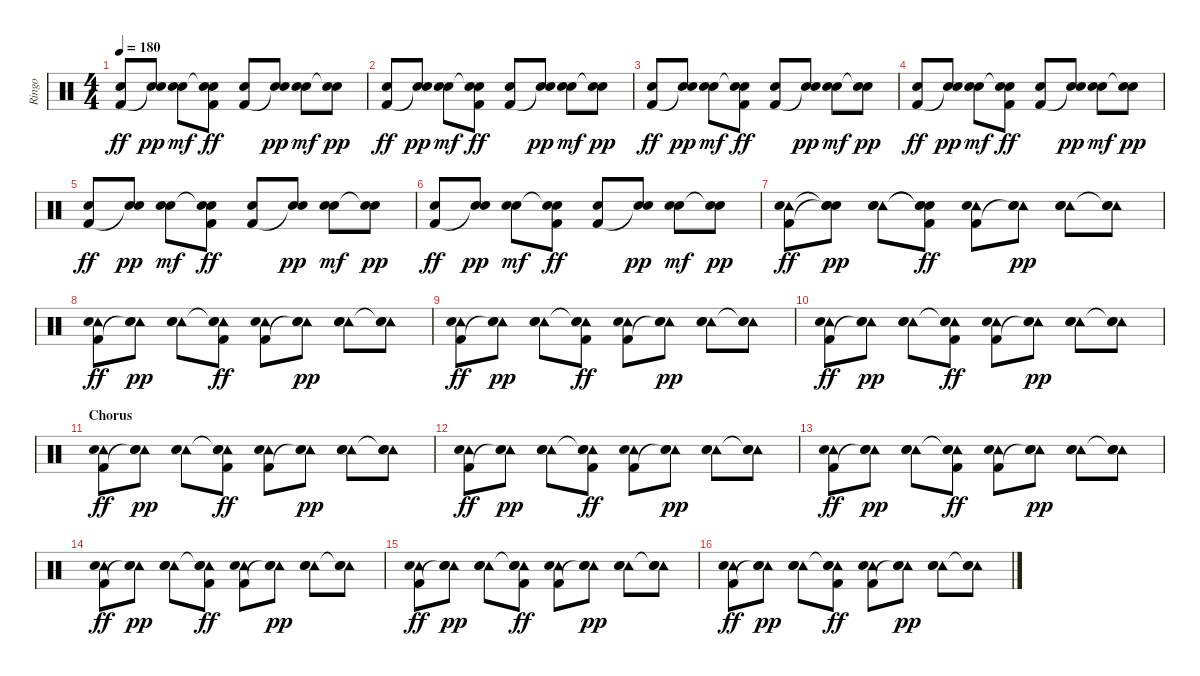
\track ("Ringo" "Ringo") {instrument percussion}
\staff {score}
\articulation defaults
\ts (4 4)
\tempo 180
\clef neutral
\ks c
("Hand Clap (hit)" "Kick (hit) 2").8{dy ff} ("Hand Clap (hit)" "Snare (hit)"{t}).8{dy pp} ("Hand Clap (hit)" "Snare (hit) 2").8{dy mf} ("Hand Clap (hit)" "Snare (hit)"{t} "Kick (hit) 2").8{dy ff} ("Hand Clap (hit)" "Kick (hit) 2").8 ("Hand Clap (hit)" "Snare (hit)"{t}).8{dy pp} ("Hand Clap (hit)" "Snare (hit) 2").8{dy mf} ("Hand Clap (hit)" "Snare (hit)"{t}).8{dy pp} |
("Hand Clap (hit)" "Kick (hit) 2").8{dy ff} ("Hand Clap (hit)" "Snare (hit)"{t}).8{dy pp} ("Hand Clap (hit)" "Snare (hit) 2").8{dy mf} ("Hand Clap (hit)" "Snare (hit)"{t} "Kick (hit) 2").8{dy ff} ("Hand Clap (hit)" "Kick (hit) 2").8 ("Hand Clap (hit)" "Snare (hit)"{t}).8{dy pp} ("Hand Clap (hit)" "Snare (hit) 2").8{dy mf} ("Hand Clap (hit)" "Snare (hit)"{t}).8{dy pp} |
("Hand Clap (hit)" "Kick (hit) 2").8{dy ff} ("Hand Clap (hit)" "Snare (hit)"{t}).8{dy pp} ("Hand Clap (hit)" "Snare (hit) 2").8{dy mf} ("Hand Clap (hit)" "Snare (hit)"{t} "Kick (hit) 2").8{dy ff} ("Hand Clap (hit)" "Kick (hit) 2").8 ("Hand Clap (hit)" "Snare (hit)"{t}).8{dy pp} ("Hand Clap (hit)" "Snare (hit) 2").8{dy mf} ("Hand Clap (hit)" "Snare (hit)"{t}).8{dy pp} |
("Hand Clap (hit)" "Kick (hit) 2").8{dy ff} ("Hand Clap (hit)" "Snare (hit)"{t}).8{dy pp} ("Hand Clap (hit)" "Snare (hit) 2").8{dy mf} ("Hand Clap (hit)" "Snare (hit)"{t} "Kick (hit) 2").8{dy ff} ("Hand Clap (hit)" "Kick (hit) 2").8 ("Hand Clap (hit)" "Snare (hit)"{t}).8{dy pp} ("Hand Clap (hit)" "Snare (hit) 2").8{dy mf} ("Hand Clap (hit)" "Snare (hit)"{t}).8{dy pp} |
("Hand Clap (hit)" "Kick (hit) 2").8{dy ff} ("Hand Clap (hit)" "Snare (hit)"{t}).8{dy pp} ("Hand Clap (hit)" "Snare (hit) 2").8{dy mf} ("Hand Clap (hit)" "Snare (hit)"{t} "Kick (hit) 2").8{dy ff} ("Hand Clap (hit)" "Kick (hit) 2").8 ("Hand Clap (hit)" "Snare (hit)"{t}).8{dy pp} ("Hand Clap (hit)" "Snare (hit) 2").8{dy mf} ("Hand Clap (hit)" "Snare (hit)"{t}).8{dy pp} |
("Hand Clap (hit)" "Kick (hit) 2").8{dy ff} ("Hand Clap (hit)" "Snare (hit)"{t}).8{dy pp} ("Hand Clap (hit)" "Snare (hit) 2").8{dy mf} ("Hand Clap (hit)" "Snare (hit)"{t} "Kick (hit) 2").8{dy ff} ("Hand Clap (hit)" "Kick (hit) 2").8 ("Hand Clap (hit)" "Snare (hit)"{t}).8{dy pp} ("Hand Clap (hit)" "Snare (hit) 2").8{dy mf} ("Hand Clap (hit)" "Snare (hit)"{t}).8{dy pp} |
("Tambourine (hit)" "Hand Clap (hit)" "Kick (hit) 2").8{dy ff} ("Snare (hit)"{t} "Hand Clap (hit)" "Snare (hit)"{t}).8{dy pp} ("Tambourine (hit)" "Hand Clap (hit)" "Snare (hit) 2").8 ("Snare (hit)"{t} "Hand Clap (hit)" "Snare (hit)"{t} "Kick (hit) 2").8{dy ff} ("Tambourine (hit)" "Hand Clap (hit)" "Kick (hit) 2").8 ("Tambourine (hit)" "Hand Clap (hit)" "Snare (hit)"{t}).8{dy pp} ("Tambourine (hit)" "Hand Clap (hit)" "Snare (hit) 2").8 ("Tambourine (hit)" "Hand Clap (hit)" "Snare (hit)"{t}).8 |
("Tambourine (hit)" "Hand Clap (hit)" "Kick (hit) 2").8{dy ff} ("Tambourine (hit)" "Hand Clap (hit)" "Snare (hit)"{t}).8{dy pp} ("Tambourine (hit)" "Hand Clap (hit)" "Snare (hit) 2").8 ("Tambourine (hit)" "Hand Clap (hit)" "Snare (hit)"{t} "Kick (hit) 2").8{dy ff} ("Tambourine (hit)" "Hand Clap (hit)" "Kick (hit) 2").8 ("Tambourine (hit)" "Hand Clap (hit)" "Snare (hit)"{t}).8{dy pp} ("Tambourine (hit)" "Hand Clap (hit)" "Snare (hit) 2").8 ("Tambourine (hit)" "Hand Clap (hit)" "Snare (hit)"{t}).8 |
("Tambourine (hit)" "Hand Clap (hit)" "Kick (hit) 2").8{dy ff} ("Tambourine (hit)" "Hand Clap (hit)" "Snare (hit)"{t}).8{dy pp} ("Tambourine (hit)" "Hand Clap (hit)" "Snare (hit) 2").8 ("Tambourine (hit)" "Hand Clap (hit)" "Snare (hit)"{t} "Kick (hit) 2").8{dy ff} ("Tambourine (hit)" "Hand Clap (hit)" "Kick (hit) 2").8 ("Tambourine (hit)" "Hand Clap (hit)" "Snare (hit)"{t}).8{dy pp} ("Tambourine (hit)" "Hand Clap (hit)" "Snare (hit) 2").8 ("Tambourine (hit)" "Hand Clap (hit)" "Snare (hit)"{t}).8 |
("Tambourine (hit)" "Hand Clap (hit)" "Kick (hit) 2").8{dy ff} ("Tambourine (hit)" "Hand Clap (hit)" "Snare (hit)"{t}).8{dy pp} ("Tambourine (hit)" "Hand Clap (hit)" "Snare (hit) 2").8 ("Tambourine (hit)" "Hand Clap (hit)" "Snare (hit)"{t} "Kick (hit) 2").8{dy ff} ("Tambourine (hit)" "Hand Clap (hit)" "Kick (hit) 2").8 ("Tambourine (hit)" "Hand Clap (hit)" "Snare (hit)"{t}).8{dy pp} ("Tambourine (hit)" "Hand Clap (hit)" "Snare (hit) 2").8 ("Tambourine (hit)" "Hand Clap (hit)" "Snare (hit)"{t}).8 |
\section ("" "Chorus")
("Tambourine (hit)" "Hand Clap (hit)" "Kick (hit) 2").8{dy ff} ("Tambourine (hit)" "Hand Clap (hit)" "Snare (hit)"{t}).8{dy pp} ("Tambourine (hit)" "Hand Clap (hit)" "Snare (hit) 2").8 ("Tambourine (hit)" "Hand Clap (hit)" "Snare (hit)"{t} "Kick (hit) 2").8{dy ff} ("Tambourine (hit)" "Hand Clap (hit)" "Kick (hit) 2").8 ("Tambourine (hit)" "Hand Clap (hit)" "Snare (hit)"{t}).8{dy pp} ("Tambourine (hit)" "Hand Clap (hit)" "Snare (hit) 2").8 ("Tambourine (hit)" "Hand Clap (hit)" "Snare (hit)"{t}).8 |
("Tambourine (hit)" "Hand Clap (hit)" "Kick (hit) 2").8{dy ff} ("Tambourine (hit)" "Hand Clap (hit)" "Snare (hit)"{t}).8{dy pp} ("Tambourine (hit)" "Hand Clap (hit)" "Snare (hit) 2").8 ("Tambourine (hit)" "Hand Clap (hit)" "Snare (hit)"{t} "Kick (hit) 2").8{dy ff} ("Tambourine (hit)" "Hand Clap (hit)" "Kick (hit) 2").8 ("Tambourine (hit)" "Hand Clap (hit)" "Snare (hit)"{t}).8{dy pp} ("Tambourine (hit)" "Hand Clap (hit)" "Snare (hit) 2").8 ("Tambourine (hit)" "Hand Clap (hit)" "Snare (hit)"{t}).8 |
("Tambourine (hit)" "Hand Clap (hit)" "Kick (hit) 2").8{dy ff} ("Tambourine (hit)" "Hand Clap (hit)" "Snare (hit)"{t}).8{dy pp} ("Tambourine (hit)" "Hand Clap (hit)" "Snare (hit) 2").8 ("Tambourine (hit)" "Hand Clap (hit)" "Snare (hit)"{t} "Kick (hit) 2").8{dy ff} ("Tambourine (hit)" "Hand Clap (hit)" "Kick (hit) 2").8 ("Tambourine (hit)" "Hand Clap (hit)" "Snare (hit)"{t}).8{dy pp} ("Tambourine (hit)" "Hand Clap (hit)" "Snare (hit) 2").8 ("Tambourine (hit)" "Hand Clap (hit)" "Snare (hit)"{t}).8 |
("Tambourine (hit)" "Hand Clap (hit)" "Kick (hit) 2").8{dy ff} ("Tambourine (hit)" "Hand Clap (hit)" "Snare (hit)"{t}).8{dy pp} ("Tambourine (hit)" "Hand Clap (hit)" "Snare (hit) 2").8 ("Tambourine (hit)" "Hand Clap (hit)" "Snare (hit)"{t} "Kick (hit) 2").8{dy ff} ("Tambourine (hit)" "Hand Clap (hit)" "Kick (hit) 2").8 ("Tambourine (hit)" "Hand Clap (hit)" "Snare (hit)"{t}).8{dy pp} ("Tambourine (hit)" "Hand Clap (hit)" "Snare (hit) 2").8 ("Tambourine (hit)" "Hand Clap (hit)" "Snare (hit)"{t}).8 |
("Tambourine (hit)" "Hand Clap (hit)" "Kick (hit) 2").8{dy ff} ("Tambourine (hit)" "Hand Clap (hit)" "Snare (hit)"{t}).8{dy pp} ("Tambourine (hit)" "Hand Clap (hit)" "Snare (hit) 2").8 ("Tambourine (hit)" "Hand Clap (hit)" "Snare (hit)"{t} "Kick (hit) 2").8{dy ff} ("Tambourine (hit)" "Hand Clap (hit)" "Kick (hit) 2").8 ("Tambourine (hit)" "Hand Clap (hit)" "Snare (hit)"{t}).8{dy pp} ("Tambourine (hit)" "Hand Clap (hit)" "Snare (hit) 2").8 ("Tambourine (hit)" "Hand Clap (hit)" "Snare (hit)"{t}).8 |
("Tambourine (hit)" "Hand Clap (hit)" "Kick (hit) 2").8{dy ff} ("Tambourine (hit)" "Hand Clap (hit)" "Snare (hit)"{t}).8{dy pp} ("Tambourine (hit)" "Hand Clap (hit)" "Snare (hit) 2").8 ("Tambourine (hit)" "Hand Clap (hit)" "Snare (hit)"{t} "Kick (hit) 2").8{dy ff} ("Tambourine (hit)" "Hand Clap (hit)" "Kick (hit) 2").8 ("Tambourine (hit)" "Hand Clap (hit)" "Snare (hit)"{t}).8{dy pp} ("Tambourine (hit)" "Hand Clap (hit)" "Snare (hit) 2").8 ("Tambourine (hit)" "Hand Clap (hit)" "Snare (hit)"{t}).8
